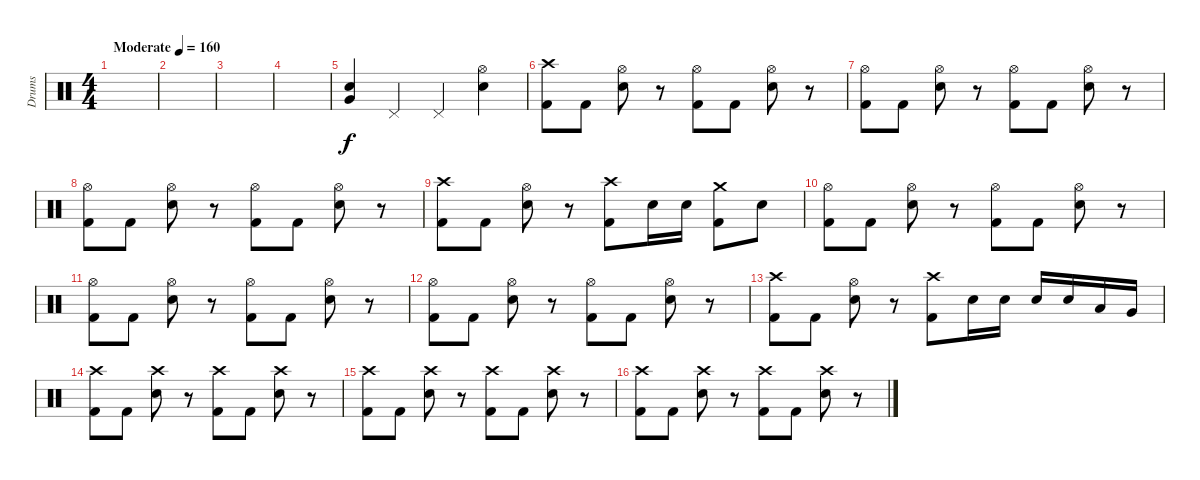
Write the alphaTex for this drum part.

\track ("Drums" "Drums") {instrument percussion}
\staff {score}
\articulation defaults
\ts (4 4)
\tempo (160 "Moderate")
\clef neutral
\ks c
|
|
|
|
("Very Low Tom (hit)" "Electric Snare (hit)").4 "Pedal Hi-Hat (hit)".4 "Pedal Hi-Hat (hit)".4 ("Hi-Hat (open)" "Electric Snare (hit)").4 |
("Crash high (hit)" "Kick (hit) 2").8 "Kick (hit) 2".8 ("Hi-Hat (open)" "Electric Snare (hit)").8 r.8 ("Hi-Hat (open)" "Kick (hit) 2").8 "Kick (hit) 2".8 ("Hi-Hat (open)" "Electric Snare (hit)").8 r.8 |
("Hi-Hat (open)" "Kick (hit) 2").8 "Kick (hit) 2".8 ("Hi-Hat (open)" "Electric Snare (hit)").8 r.8 ("Hi-Hat (open)" "Kick (hit) 2").8 "Kick (hit) 2".8 ("Hi-Hat (open)" "Electric Snare (hit)").8 r.8 |
("Hi-Hat (open)" "Kick (hit) 2").8 "Kick (hit) 2".8 ("Hi-Hat (open)" "Electric Snare (hit)").8 r.8 ("Hi-Hat (open)" "Kick (hit) 2").8 "Kick (hit) 2".8 ("Hi-Hat (open)" "Electric Snare (hit)").8 r.8 |
("Crash high (hit)" "Kick (hit) 2").8 "Kick (hit) 2".8 ("Hi-Hat (open)" "Electric Snare (hit)").8 r.8 ("Crash high (hit)" "Kick (hit) 2").8 "Electric Snare (hit)".16 "Electric Snare (hit)".16 ("Crash medium (hit)" "Kick (hit) 2").8 "Electric Snare (hit)".8 |
("Hi-Hat (open)" "Kick (hit) 2").8 "Kick (hit) 2".8 ("Hi-Hat (open)" "Electric Snare (hit)").8 r.8 ("Hi-Hat (open)" "Kick (hit) 2").8 "Kick (hit) 2".8 ("Hi-Hat (open)" "Electric Snare (hit)").8 r.8 |
("Hi-Hat (open)" "Kick (hit) 2").8 "Kick (hit) 2".8 ("Hi-Hat (open)" "Electric Snare (hit)").8 r.8 ("Hi-Hat (open)" "Kick (hit) 2").8 "Kick (hit) 2".8 ("Hi-Hat (open)" "Electric Snare (hit)").8 r.8 |
("Hi-Hat (open)" "Kick (hit) 2").8 "Kick (hit) 2".8 ("Hi-Hat (open)" "Electric Snare (hit)").8 r.8 ("Hi-Hat (open)" "Kick (hit) 2").8 "Kick (hit) 2".8 ("Hi-Hat (open)" "Electric Snare (hit)").8 r.8 |
("Crash high (hit)" "Kick (hit) 2").8 "Kick (hit) 2".8 ("Hi-Hat (open)" "Electric Snare (hit)").8 r.8 ("Crash high (hit)" "Kick (hit) 2").8 "Electric Snare (hit)".16 "Electric Snare (hit)".16 "Electric Snare (hit)".16 "Electric Snare (hit)".16 "Low Tom (hit)".16 "Very Low Tom (hit)".16 |
("Crash high (hit)" "Kick (hit) 2").8 "Kick (hit) 2".8 ("Crash high (hit)" "Electric Snare (hit)").8 r.8 ("Crash high (hit)" "Kick (hit) 2").8 "Kick (hit) 2".8 ("Crash high (hit)" "Electric Snare (hit)").8 r.8 |
("Crash high (hit)" "Kick (hit) 2").8 "Kick (hit) 2".8 ("Crash high (hit)" "Electric Snare (hit)").8 r.8 ("Crash high (hit)" "Kick (hit) 2").8 "Kick (hit) 2".8 ("Crash high (hit)" "Electric Snare (hit)").8 r.8 |
("Crash high (hit)" "Kick (hit) 2").8 "Kick (hit) 2".8 ("Crash high (hit)" "Electric Snare (hit)").8 r.8 ("Crash high (hit)" "Kick (hit) 2").8 "Kick (hit) 2".8 ("Crash high (hit)" "Electric Snare (hit)").8 r.8
